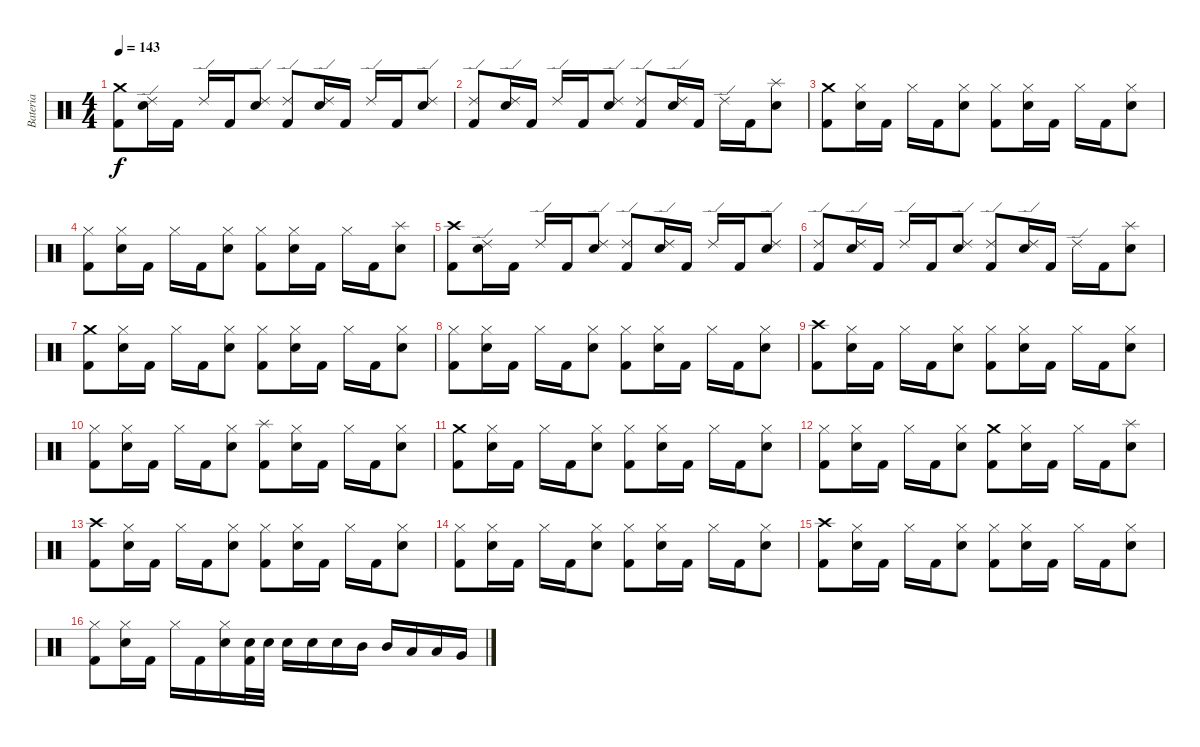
\track ("Bateria" "Bateria") {instrument percussion}
\staff {score}
\articulation defaults
\ts (4 4)
\tempo 143
\clef neutral
\ks c
("Crash medium (hit)" "Kick (hit) 2").8{dy f} ("Ride (edge) 2" "Snare (hit) 2").16 "Kick (hit) 2".16 "Ride (edge) 2".16 "Kick (hit) 2".16 ("Ride (edge) 2" "Snare (hit) 2").8 ("Ride (edge) 2" "Kick (hit) 2").8 ("Ride (edge) 2" "Snare (hit) 2").16 "Kick (hit) 2".16 "Ride (edge) 2".16 "Kick (hit) 2".16 ("Ride (edge) 2" "Snare (hit) 2").8 |
("Ride (edge) 2" "Kick (hit) 2").8 ("Ride (edge) 2" "Snare (hit) 2").16 "Kick (hit) 2".16 "Ride (edge) 2".16 "Kick (hit) 2".16 ("Ride (edge) 2" "Snare (hit) 2").8 ("Ride (edge) 2" "Kick (hit) 2").8 ("Ride (edge) 2" "Snare (hit) 2").16 "Kick (hit) 2".16 "Ride (edge) 2".16 "Kick (hit) 2".16 ("Splash (hit)" "Snare (hit) 2").8 |
("Crash medium (hit)" "Kick (hit) 2").8 ("Hi-Hat (closed)" "Snare (hit) 2").16 "Kick (hit) 2".16 "Hi-Hat (closed)".16 "Kick (hit) 2".16 ("Hi-Hat (closed)" "Snare (hit) 2").8 ("Hi-Hat (closed)" "Kick (hit) 2").8 ("Hi-Hat (closed)" "Snare (hit) 2").16 "Kick (hit) 2".16 "Hi-Hat (closed)".16 "Kick (hit) 2".16 ("Hi-Hat (closed)" "Snare (hit) 2").8 |
("Hi-Hat (closed)" "Kick (hit) 2").8 ("Hi-Hat (closed)" "Snare (hit) 2").16 "Kick (hit) 2".16 "Hi-Hat (closed)".16 "Kick (hit) 2".16 ("Hi-Hat (closed)" "Snare (hit) 2").8 ("Hi-Hat (closed)" "Kick (hit) 2").8 ("Hi-Hat (closed)" "Snare (hit) 2").16 "Kick (hit) 2".16 "Hi-Hat (closed)".16 "Kick (hit) 2".16 ("Splash (hit)" "Snare (hit) 2").8 |
("Crash high (hit)" "Kick (hit) 2").8 ("Ride (edge) 2" "Snare (hit) 2").16 "Kick (hit) 2".16 "Ride (edge) 2".16 "Kick (hit) 2".16 ("Ride (edge) 2" "Snare (hit) 2").8 ("Ride (edge) 2" "Kick (hit) 2").8 ("Ride (edge) 2" "Snare (hit) 2").16 "Kick (hit) 2".16 "Ride (edge) 2".16 "Kick (hit) 2".16 ("Ride (edge) 2" "Snare (hit) 2").8 |
("Ride (edge) 2" "Kick (hit) 2").8 ("Ride (edge) 2" "Snare (hit) 2").16 "Kick (hit) 2".16 "Ride (edge) 2".16 "Kick (hit) 2".16 ("Ride (edge) 2" "Snare (hit) 2").8 ("Ride (edge) 2" "Kick (hit) 2").8 ("Ride (edge) 2" "Snare (hit) 2").16 "Kick (hit) 2".16 "Ride (edge) 2".16 "Kick (hit) 2".16 ("Splash (hit)" "Snare (hit) 2").8 |
("Crash medium (hit)" "Kick (hit) 2").8 ("Hi-Hat (closed)" "Snare (hit) 2").16 "Kick (hit) 2".16 "Hi-Hat (closed)".16 "Kick (hit) 2".16 ("Hi-Hat (closed)" "Snare (hit) 2").8 ("Hi-Hat (closed)" "Kick (hit) 2").8 ("Hi-Hat (closed)" "Snare (hit) 2").16 "Kick (hit) 2".16 "Hi-Hat (closed)".16 "Kick (hit) 2".16 ("Hi-Hat (closed)" "Snare (hit) 2").8 |
("Hi-Hat (closed)" "Kick (hit) 2").8 ("Hi-Hat (closed)" "Snare (hit) 2").16 "Kick (hit) 2".16 "Hi-Hat (closed)".16 "Kick (hit) 2".16 ("Hi-Hat (closed)" "Snare (hit) 2").8 ("Hi-Hat (closed)" "Kick (hit) 2").8 ("Hi-Hat (closed)" "Snare (hit) 2").16 "Kick (hit) 2".16 "Hi-Hat (closed)".16 "Kick (hit) 2".16 ("Hi-Hat (closed)" "Snare (hit) 2").8 |
("Crash high (hit)" "Kick (hit) 2").8 ("Hi-Hat (closed)" "Snare (hit) 2").16 "Kick (hit) 2".16 "Hi-Hat (closed)".16 "Kick (hit) 2".16 ("Hi-Hat (closed)" "Snare (hit) 2").8 ("Hi-Hat (closed)" "Kick (hit) 2").8 ("Hi-Hat (closed)" "Snare (hit) 2").16 "Kick (hit) 2".16 "Hi-Hat (closed)".16 "Kick (hit) 2".16 ("Hi-Hat (closed)" "Snare (hit) 2").8 |
("Hi-Hat (closed)" "Kick (hit) 2").8 ("Hi-Hat (closed)" "Snare (hit) 2").16 "Kick (hit) 2".16 "Hi-Hat (closed)".16 "Kick (hit) 2".16 ("Hi-Hat (closed)" "Snare (hit) 2").8 ("Splash (hit)" "Kick (hit) 2").8 ("Hi-Hat (closed)" "Snare (hit) 2").16 "Kick (hit) 2".16 "Hi-Hat (closed)".16 "Kick (hit) 2".16 ("Hi-Hat (closed)" "Snare (hit) 2").8 |
("Crash medium (hit)" "Kick (hit) 2").8 ("Hi-Hat (closed)" "Snare (hit) 2").16 "Kick (hit) 2".16 "Hi-Hat (closed)".16 "Kick (hit) 2".16 ("Hi-Hat (closed)" "Snare (hit) 2").8 ("Hi-Hat (closed)" "Kick (hit) 2").8 ("Hi-Hat (closed)" "Snare (hit) 2").16 "Kick (hit) 2".16 "Hi-Hat (closed)".16 "Kick (hit) 2".16 ("Hi-Hat (closed)" "Snare (hit) 2").8 |
("Hi-Hat (closed)" "Kick (hit) 2").8 ("Hi-Hat (closed)" "Snare (hit) 2").16 "Kick (hit) 2".16 "Hi-Hat (closed)".16 "Kick (hit) 2".16 ("Hi-Hat (closed)" "Snare (hit) 2").8 ("Crash medium (hit)" "Kick (hit) 2").8 ("Hi-Hat (closed)" "Snare (hit) 2").16 "Kick (hit) 2".16 "Hi-Hat (closed)".16 "Kick (hit) 2".16 ("Splash (hit)" "Snare (hit) 2").8 |
("Crash high (hit)" "Kick (hit) 2").8 ("Hi-Hat (closed)" "Snare (hit) 2").16 "Kick (hit) 2".16 "Hi-Hat (closed)".16 "Kick (hit) 2".16 ("Hi-Hat (closed)" "Snare (hit) 2").8 ("Hi-Hat (closed)" "Kick (hit) 2").8 ("Hi-Hat (closed)" "Snare (hit) 2").16 "Kick (hit) 2".16 "Hi-Hat (closed)".16 "Kick (hit) 2".16 ("Hi-Hat (closed)" "Snare (hit) 2").8 |
("Hi-Hat (closed)" "Kick (hit) 2").8 ("Hi-Hat (closed)" "Snare (hit) 2").16 "Kick (hit) 2".16 "Hi-Hat (closed)".16 "Kick (hit) 2".16 ("Hi-Hat (closed)" "Snare (hit) 2").8 ("Hi-Hat (closed)" "Kick (hit) 2").8 ("Hi-Hat (closed)" "Snare (hit) 2").16 "Kick (hit) 2".16 "Hi-Hat (closed)".16 "Kick (hit) 2".16 ("Hi-Hat (closed)" "Snare (hit) 2").8 |
("Crash high (hit)" "Kick (hit) 2").8 ("Hi-Hat (closed)" "Snare (hit) 2").16 "Kick (hit) 2".16 "Hi-Hat (closed)".16 "Kick (hit) 2".16 ("Hi-Hat (closed)" "Snare (hit) 2").8 ("Hi-Hat (closed)" "Kick (hit) 2").8 ("Hi-Hat (closed)" "Snare (hit) 2").16 "Kick (hit) 2".16 "Hi-Hat (closed)".16 "Kick (hit) 2".16 ("Hi-Hat (closed)" "Snare (hit) 2").8 |
("Hi-Hat (closed)" "Kick (hit) 2").8 ("Hi-Hat (closed)" "Snare (hit) 2").16 "Kick (hit) 2".16 "Hi-Hat (closed)".16 "Kick (hit) 2".16 ("Hi-Hat (closed)" "Snare (hit) 2").16 ("Snare (hit) 2" "Kick (hit) 2").32 "Snare (hit) 2".32 "Snare (hit) 2".16 "Snare (hit) 2".16 "Snare (hit) 2".16 "Mid Tom (hit)".16 "Mid Tom (hit)".16 "Low Tom (hit)".16 "Low Tom (hit)".16 "Very Low Tom (hit)".16
